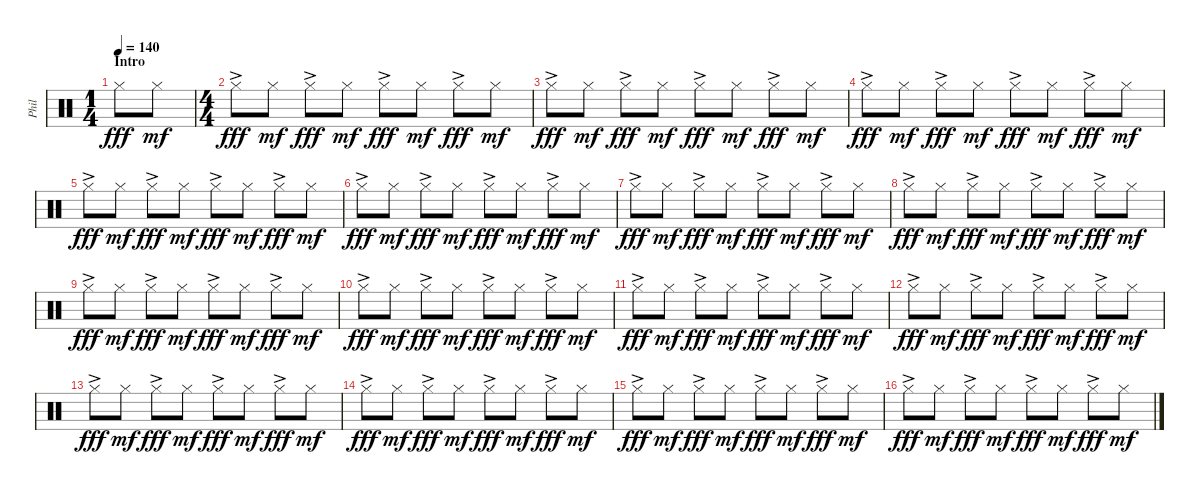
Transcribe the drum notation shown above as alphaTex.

\track ("Phil" "Phil") {instrument percussion}
\staff {score}
\articulation defaults
\ts (1 4)
\section ("" "Intro")
\tempo 140
\clef neutral
\ks c "Hi-Hat (closed)".8{dy fff} "Hi-Hat (closed)".8{dy mf}
|
\ts (4 4)
"Hi-Hat (closed)"{ac}.8{dy fff} "Hi-Hat (closed)".8{dy mf} "Hi-Hat (closed)"{ac}.8{dy fff} "Hi-Hat (closed)".8{dy mf} "Hi-Hat (closed)"{ac}.8{dy fff} "Hi-Hat (closed)".8{dy mf} "Hi-Hat (closed)"{ac}.8{dy fff} "Hi-Hat (closed)".8{dy mf} |
"Hi-Hat (closed)"{ac}.8{dy fff} "Hi-Hat (closed)".8{dy mf} "Hi-Hat (closed)"{ac}.8{dy fff} "Hi-Hat (closed)".8{dy mf} "Hi-Hat (closed)"{ac}.8{dy fff} "Hi-Hat (closed)".8{dy mf} "Hi-Hat (closed)"{ac}.8{dy fff} "Hi-Hat (closed)".8{dy mf} |
"Hi-Hat (closed)"{ac}.8{dy fff} "Hi-Hat (closed)".8{dy mf} "Hi-Hat (closed)"{ac}.8{dy fff} "Hi-Hat (closed)".8{dy mf} "Hi-Hat (closed)"{ac}.8{dy fff} "Hi-Hat (closed)".8{dy mf} "Hi-Hat (closed)"{ac}.8{dy fff} "Hi-Hat (closed)".8{dy mf} |
"Hi-Hat (closed)"{ac}.8{dy fff} "Hi-Hat (closed)".8{dy mf} "Hi-Hat (closed)"{ac}.8{dy fff} "Hi-Hat (closed)".8{dy mf} "Hi-Hat (closed)"{ac}.8{dy fff} "Hi-Hat (closed)".8{dy mf} "Hi-Hat (closed)"{ac}.8{dy fff} "Hi-Hat (closed)".8{dy mf} |
"Hi-Hat (closed)"{ac}.8{dy fff} "Hi-Hat (closed)".8{dy mf} "Hi-Hat (closed)"{ac}.8{dy fff} "Hi-Hat (closed)".8{dy mf} "Hi-Hat (closed)"{ac}.8{dy fff} "Hi-Hat (closed)".8{dy mf} "Hi-Hat (closed)"{ac}.8{dy fff} "Hi-Hat (closed)".8{dy mf} |
"Hi-Hat (closed)"{ac}.8{dy fff} "Hi-Hat (closed)".8{dy mf} "Hi-Hat (closed)"{ac}.8{dy fff} "Hi-Hat (closed)".8{dy mf} "Hi-Hat (closed)"{ac}.8{dy fff} "Hi-Hat (closed)".8{dy mf} "Hi-Hat (closed)"{ac}.8{dy fff} "Hi-Hat (closed)".8{dy mf} |
"Hi-Hat (closed)"{ac}.8{dy fff} "Hi-Hat (closed)".8{dy mf} "Hi-Hat (closed)"{ac}.8{dy fff} "Hi-Hat (closed)".8{dy mf} "Hi-Hat (closed)"{ac}.8{dy fff} "Hi-Hat (closed)".8{dy mf} "Hi-Hat (closed)"{ac}.8{dy fff} "Hi-Hat (closed)".8{dy mf} |
"Hi-Hat (closed)"{ac}.8{dy fff} "Hi-Hat (closed)".8{dy mf} "Hi-Hat (closed)"{ac}.8{dy fff} "Hi-Hat (closed)".8{dy mf} "Hi-Hat (closed)"{ac}.8{dy fff} "Hi-Hat (closed)".8{dy mf} "Hi-Hat (closed)"{ac}.8{dy fff} "Hi-Hat (closed)".8{dy mf} |
"Hi-Hat (closed)"{ac}.8{dy fff} "Hi-Hat (closed)".8{dy mf} "Hi-Hat (closed)"{ac}.8{dy fff} "Hi-Hat (closed)".8{dy mf} "Hi-Hat (closed)"{ac}.8{dy fff} "Hi-Hat (closed)".8{dy mf} "Hi-Hat (closed)"{ac}.8{dy fff} "Hi-Hat (closed)".8{dy mf} |
"Hi-Hat (closed)"{ac}.8{dy fff} "Hi-Hat (closed)".8{dy mf} "Hi-Hat (closed)"{ac}.8{dy fff} "Hi-Hat (closed)".8{dy mf} "Hi-Hat (closed)"{ac}.8{dy fff} "Hi-Hat (closed)".8{dy mf} "Hi-Hat (closed)"{ac}.8{dy fff} "Hi-Hat (closed)".8{dy mf} |
"Hi-Hat (closed)"{ac}.8{dy fff} "Hi-Hat (closed)".8{dy mf} "Hi-Hat (closed)"{ac}.8{dy fff} "Hi-Hat (closed)".8{dy mf} "Hi-Hat (closed)"{ac}.8{dy fff} "Hi-Hat (closed)".8{dy mf} "Hi-Hat (closed)"{ac}.8{dy fff} "Hi-Hat (closed)".8{dy mf} |
"Hi-Hat (closed)"{ac}.8{dy fff} "Hi-Hat (closed)".8{dy mf} "Hi-Hat (closed)"{ac}.8{dy fff} "Hi-Hat (closed)".8{dy mf} "Hi-Hat (closed)"{ac}.8{dy fff} "Hi-Hat (closed)".8{dy mf} "Hi-Hat (closed)"{ac}.8{dy fff} "Hi-Hat (closed)".8{dy mf} |
"Hi-Hat (closed)"{ac}.8{dy fff} "Hi-Hat (closed)".8{dy mf} "Hi-Hat (closed)"{ac}.8{dy fff} "Hi-Hat (closed)".8{dy mf} "Hi-Hat (closed)"{ac}.8{dy fff} "Hi-Hat (closed)".8{dy mf} "Hi-Hat (closed)"{ac}.8{dy fff} "Hi-Hat (closed)".8{dy mf} |
"Hi-Hat (closed)"{ac}.8{dy fff} "Hi-Hat (closed)".8{dy mf} "Hi-Hat (closed)"{ac}.8{dy fff} "Hi-Hat (closed)".8{dy mf} "Hi-Hat (closed)"{ac}.8{dy fff} "Hi-Hat (closed)".8{dy mf} "Hi-Hat (closed)"{ac}.8{dy fff} "Hi-Hat (closed)".8{dy mf} |
"Hi-Hat (closed)"{ac}.8{dy fff} "Hi-Hat (closed)".8{dy mf} "Hi-Hat (closed)"{ac}.8{dy fff} "Hi-Hat (closed)".8{dy mf} "Hi-Hat (closed)"{ac}.8{dy fff} "Hi-Hat (closed)".8{dy mf} "Hi-Hat (closed)"{ac}.8{dy fff} "Hi-Hat (closed)".8{dy mf}
